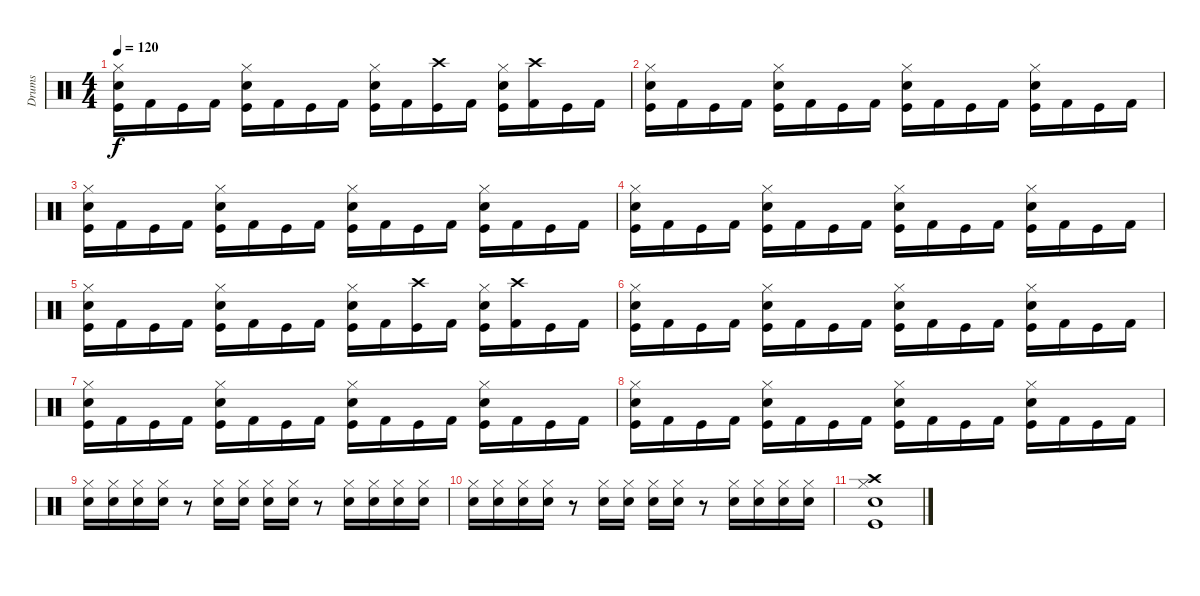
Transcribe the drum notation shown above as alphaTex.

\track ("Drums" "Drums") {instrument percussion}
\staff {score}
\articulation defaults
\ts (4 4)
\tempo 120
\clef neutral
\ks c
("Hi-Hat (closed)" "Snare (hit) 2" "Kick (hit)").16{dy f} "Kick (hit) 2".16 "Kick (hit)".16 "Kick (hit) 2".16 ("Hi-Hat (closed)" "Snare (hit) 2" "Kick (hit)").16 "Kick (hit) 2".16 "Kick (hit)".16 "Kick (hit) 2".16 ("Hi-Hat (closed)" "Snare (hit) 2" "Kick (hit)").16 "Kick (hit) 2".16 ("Crash high (hit)" "Kick (hit)").16 "Kick (hit) 2".16 ("Hi-Hat (closed)" "Snare (hit) 2" "Kick (hit)").16 ("Crash high (hit)" "Kick (hit) 2").16 "Kick (hit)".16 "Kick (hit) 2".16 |
("Hi-Hat (closed)" "Snare (hit) 2" "Kick (hit)").16 "Kick (hit) 2".16 "Kick (hit)".16 "Kick (hit) 2".16 ("Hi-Hat (closed)" "Snare (hit) 2" "Kick (hit)").16 "Kick (hit) 2".16 "Kick (hit)".16 "Kick (hit) 2".16 ("Hi-Hat (closed)" "Snare (hit) 2" "Kick (hit)").16 "Kick (hit) 2".16 "Kick (hit)".16 "Kick (hit) 2".16 ("Hi-Hat (closed)" "Snare (hit) 2" "Kick (hit)").16 "Kick (hit) 2".16 "Kick (hit)".16 "Kick (hit) 2".16 |
("Hi-Hat (closed)" "Snare (hit) 2" "Kick (hit)").16 "Kick (hit) 2".16 "Kick (hit)".16 "Kick (hit) 2".16 ("Hi-Hat (closed)" "Snare (hit) 2" "Kick (hit)").16 "Kick (hit) 2".16 "Kick (hit)".16 "Kick (hit) 2".16 ("Hi-Hat (closed)" "Snare (hit) 2" "Kick (hit)").16 "Kick (hit) 2".16 "Kick (hit)".16 "Kick (hit) 2".16 ("Hi-Hat (closed)" "Snare (hit) 2" "Kick (hit)").16 "Kick (hit) 2".16 "Kick (hit)".16 "Kick (hit) 2".16 |
("Hi-Hat (closed)" "Snare (hit) 2" "Kick (hit)").16 "Kick (hit) 2".16 "Kick (hit)".16 "Kick (hit) 2".16 ("Hi-Hat (closed)" "Snare (hit) 2" "Kick (hit)").16 "Kick (hit) 2".16 "Kick (hit)".16 "Kick (hit) 2".16 ("Hi-Hat (closed)" "Snare (hit) 2" "Kick (hit)").16 "Kick (hit) 2".16 "Kick (hit)".16 "Kick (hit) 2".16 ("Hi-Hat (closed)" "Snare (hit) 2" "Kick (hit)").16 "Kick (hit) 2".16 "Kick (hit)".16 "Kick (hit) 2".16 |
("Hi-Hat (closed)" "Snare (hit) 2" "Kick (hit)").16 "Kick (hit) 2".16 "Kick (hit)".16 "Kick (hit) 2".16 ("Hi-Hat (closed)" "Snare (hit) 2" "Kick (hit)").16 "Kick (hit) 2".16 "Kick (hit)".16 "Kick (hit) 2".16 ("Hi-Hat (closed)" "Snare (hit) 2" "Kick (hit)").16 "Kick (hit) 2".16 ("Crash high (hit)" "Kick (hit)").16 "Kick (hit) 2".16 ("Hi-Hat (closed)" "Snare (hit) 2" "Kick (hit)").16 ("Crash high (hit)" "Kick (hit) 2").16 "Kick (hit)".16 "Kick (hit) 2".16 |
("Hi-Hat (closed)" "Snare (hit) 2" "Kick (hit)").16 "Kick (hit) 2".16 "Kick (hit)".16 "Kick (hit) 2".16 ("Hi-Hat (closed)" "Snare (hit) 2" "Kick (hit)").16 "Kick (hit) 2".16 "Kick (hit)".16 "Kick (hit) 2".16 ("Hi-Hat (closed)" "Snare (hit) 2" "Kick (hit)").16 "Kick (hit) 2".16 "Kick (hit)".16 "Kick (hit) 2".16 ("Hi-Hat (closed)" "Snare (hit) 2" "Kick (hit)").16 "Kick (hit) 2".16 "Kick (hit)".16 "Kick (hit) 2".16 |
("Hi-Hat (closed)" "Snare (hit) 2" "Kick (hit)").16 "Kick (hit) 2".16 "Kick (hit)".16 "Kick (hit) 2".16 ("Hi-Hat (closed)" "Snare (hit) 2" "Kick (hit)").16 "Kick (hit) 2".16 "Kick (hit)".16 "Kick (hit) 2".16 ("Hi-Hat (closed)" "Snare (hit) 2" "Kick (hit)").16 "Kick (hit) 2".16 "Kick (hit)".16 "Kick (hit) 2".16 ("Hi-Hat (closed)" "Snare (hit) 2" "Kick (hit)").16 "Kick (hit) 2".16 "Kick (hit)".16 "Kick (hit) 2".16 |
("Hi-Hat (closed)" "Snare (hit) 2" "Kick (hit)").16 "Kick (hit) 2".16 "Kick (hit)".16 "Kick (hit) 2".16 ("Hi-Hat (closed)" "Snare (hit) 2" "Kick (hit)").16 "Kick (hit) 2".16 "Kick (hit)".16 "Kick (hit) 2".16 ("Hi-Hat (closed)" "Snare (hit) 2" "Kick (hit)").16 "Kick (hit) 2".16 "Kick (hit)".16 "Kick (hit) 2".16 ("Hi-Hat (closed)" "Snare (hit) 2" "Kick (hit)").16 "Kick (hit) 2".16 "Kick (hit)".16 "Kick (hit) 2".16 |
("Hi-Hat (closed)" "Electric Snare (hit)").16 ("Hi-Hat (closed)" "Electric Snare (hit)").16 ("Hi-Hat (closed)" "Electric Snare (hit)").16 ("Hi-Hat (closed)" "Electric Snare (hit)").16 r.8 ("Hi-Hat (closed)" "Electric Snare (hit)").16 ("Hi-Hat (closed)" "Electric Snare (hit)").16 ("Hi-Hat (closed)" "Electric Snare (hit)").16 ("Hi-Hat (closed)" "Electric Snare (hit)").16 r.8 ("Hi-Hat (closed)" "Electric Snare (hit)").16 ("Hi-Hat (closed)" "Electric Snare (hit)").16 ("Hi-Hat (closed)" "Electric Snare (hit)").16 ("Hi-Hat (closed)" "Electric Snare (hit)").16 |
("Hi-Hat (closed)" "Snare (hit) 2").16 ("Hi-Hat (closed)" "Snare (hit) 2").16 ("Hi-Hat (closed)" "Snare (hit) 2").16 ("Hi-Hat (closed)" "Snare (hit) 2").16 r.8 ("Hi-Hat (closed)" "Snare (hit) 2").16 ("Hi-Hat (closed)" "Snare (hit) 2").16 ("Hi-Hat (closed)" "Snare (hit) 2").16 ("Hi-Hat (closed)" "Snare (hit) 2").16 r.8 ("Hi-Hat (closed)" "Snare (hit) 2").16 ("Hi-Hat (closed)" "Snare (hit) 2").16 ("Hi-Hat (closed)" "Snare (hit) 2").16 ("Hi-Hat (closed)" "Snare (hit) 2").16 |
("Hi-Hat (closed)" "Crash high (hit)" "Snare (hit) 2" "Kick (hit)").1
